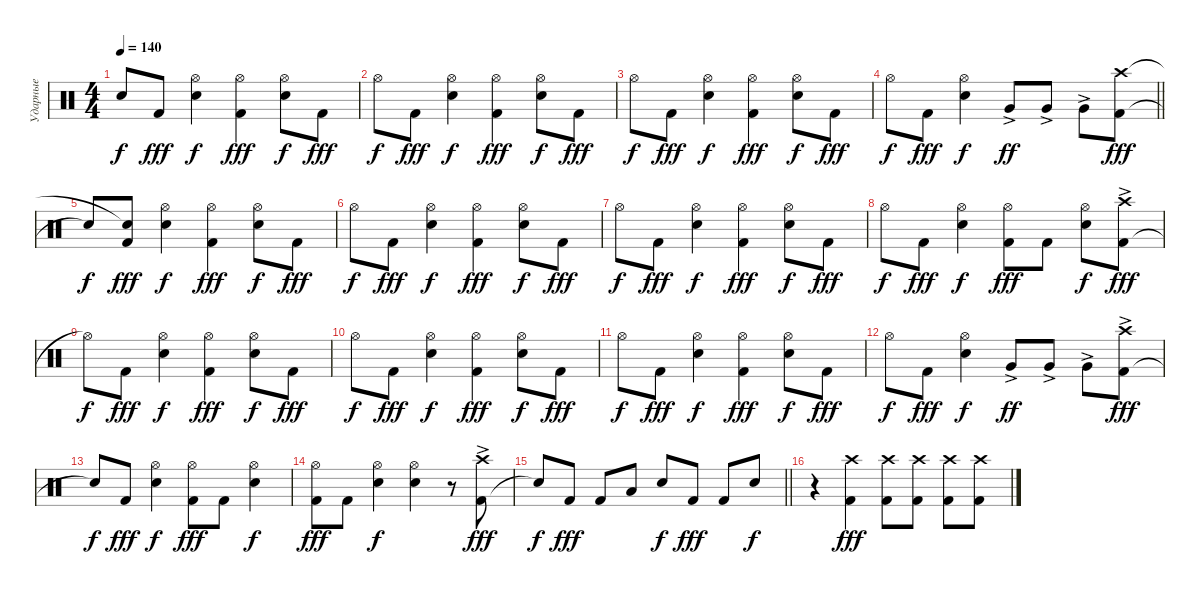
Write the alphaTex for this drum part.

\track ("Ударные" "Ударные") {instrument percussion}
\staff {score}
\articulation defaults
\ts (4 4)
\tempo 140
\clef neutral
\ks c "Snare (hit)"{t}.8{dy f} "Kick (hit) 2".8{dy fff}
("Snare (hit) 2" "Hi-Hat (open)").4{dy f} ("Kick (hit) 2" "Hi-Hat (open)").4{dy fff} ("Snare (hit) 2" "Hi-Hat (open)").8{dy f} "Kick (hit) 2".8{dy fff} |
"Hi-Hat (open)".8{dy f} "Kick (hit) 2".8{dy fff} ("Snare (hit) 2" "Hi-Hat (open)").4{dy f} ("Kick (hit) 2" "Hi-Hat (open)").4{dy fff} ("Snare (hit) 2" "Hi-Hat (open)").8{dy f} "Kick (hit) 2".8{dy fff} |
"Hi-Hat (open)".8{dy f} "Kick (hit) 2".8{dy fff} ("Snare (hit) 2" "Hi-Hat (open)").4{dy f} ("Kick (hit) 2" "Hi-Hat (open)").4{dy fff} ("Snare (hit) 2" "Hi-Hat (open)").8{dy f} "Kick (hit) 2".8{dy fff} |
\barLineRight lightlight "Hi-Hat (open)".8{dy f} "Kick (hit) 2".8{dy fff}
("Snare (hit) 2" "Hi-Hat (open)").4{dy f} "Very Low Tom (hit)"{ac}.8{dy ff} "Very Low Tom (hit)"{ac}.8 "Very Low Tom (hit)"{ac}.8 ("Kick (hit) 2" "Crash high (hit)").8{dy fff} |
"Snare (hit)"{t}.8{dy f} ("Kick (hit) 2" "Snare (hit)"{t}).8{dy fff} ("Snare (hit) 2" "Hi-Hat (open)").4{dy f} ("Kick (hit) 2" "Hi-Hat (open)").4{dy fff} ("Snare (hit) 2" "Hi-Hat (open)").8{dy f} "Kick (hit) 2".8{dy fff} |
"Hi-Hat (open)".8{dy f} "Kick (hit) 2".8{dy fff} ("Snare (hit) 2" "Hi-Hat (open)").4{dy f} ("Kick (hit) 2" "Hi-Hat (open)").4{dy fff} ("Snare (hit) 2" "Hi-Hat (open)").8{dy f} "Kick (hit) 2".8{dy fff} |
"Hi-Hat (open)".8{dy f} "Kick (hit) 2".8{dy fff} ("Snare (hit) 2" "Hi-Hat (open)").4{dy f} ("Kick (hit) 2" "Hi-Hat (open)").4{dy fff} ("Snare (hit) 2" "Hi-Hat (open)").8{dy f} "Kick (hit) 2".8{dy fff} |
"Hi-Hat (open)".8{dy f} "Kick (hit) 2".8{dy fff} ("Snare (hit) 2" "Hi-Hat (open)").4{dy f} ("Kick (hit) 2" "Hi-Hat (open)").8{dy fff} "Kick (hit) 2".8 ("Snare (hit) 2" "Hi-Hat (open)").8{dy f} ("Kick (hit) 2" "Crash high (hit)"{ac}).8{dy fff} |
"Hi-Hat (open)"{t}.8{dy f} "Kick (hit) 2".8{dy fff} ("Snare (hit) 2" "Hi-Hat (open)").4{dy f} ("Kick (hit) 2" "Hi-Hat (open)").4{dy fff} ("Snare (hit) 2" "Hi-Hat (open)").8{dy f} "Kick (hit) 2".8{dy fff} |
"Hi-Hat (open)".8{dy f} "Kick (hit) 2".8{dy fff} ("Snare (hit) 2" "Hi-Hat (open)").4{dy f} ("Kick (hit) 2" "Hi-Hat (open)").4{dy fff} ("Snare (hit) 2" "Hi-Hat (open)").8{dy f} "Kick (hit) 2".8{dy fff} |
"Hi-Hat (open)".8{dy f} "Kick (hit) 2".8{dy fff} ("Snare (hit) 2" "Hi-Hat (open)").4{dy f} ("Kick (hit) 2" "Hi-Hat (open)").4{dy fff} ("Snare (hit) 2" "Hi-Hat (open)").8{dy f} "Kick (hit) 2".8{dy fff} |
"Hi-Hat (open)".8{dy f} "Kick (hit) 2".8{dy fff} ("Snare (hit) 2" "Hi-Hat (open)").4{dy f} "Very Low Tom (hit)"{ac}.8{dy ff} "Very Low Tom (hit)"{ac}.8 "Very Low Tom (hit)"{ac}.8 ("Kick (hit) 2"{ac} "Crash high (hit)"{ac}).8{dy fff} |
"Snare (hit)"{t}.8{dy f} "Kick (hit) 2".8{dy fff} ("Snare (hit) 2" "Hi-Hat (open)").4{dy f} ("Kick (hit) 2" "Hi-Hat (open)").8{dy fff} "Kick (hit) 2".8 ("Snare (hit) 2" "Hi-Hat (open)").4{dy f} |
("Kick (hit) 2" "Hi-Hat (open)").8{dy fff} "Kick (hit) 2".8 ("Snare (hit) 2" "Hi-Hat (open)").4{dy f} ("Snare (hit) 2" "Hi-Hat (open)").4 r.8 ("Kick (hit) 2"{ac} "Crash high (hit)"{ac}).8{dy fff} |
\barLineRight lightlight "Snare (hit)"{t}.8{dy f} "Kick (hit) 2".8{dy fff} "Kick (hit) 2".8 "Low Tom (hit)".8 "Snare (hit) 2".8{dy f} "Kick (hit) 2".8{dy fff} "Kick (hit) 2".8 "Snare (hit) 2".8{dy f}
|
r.4 ("Kick (hit) 2" "Crash high (hit)").4{dy fff} ("Kick (hit) 2" "Crash high (hit)").8 ("Kick (hit) 2" "Crash high (hit)").8 ("Kick (hit) 2" "Crash high (hit)").8 ("Kick (hit) 2" "Crash high (hit)").8
